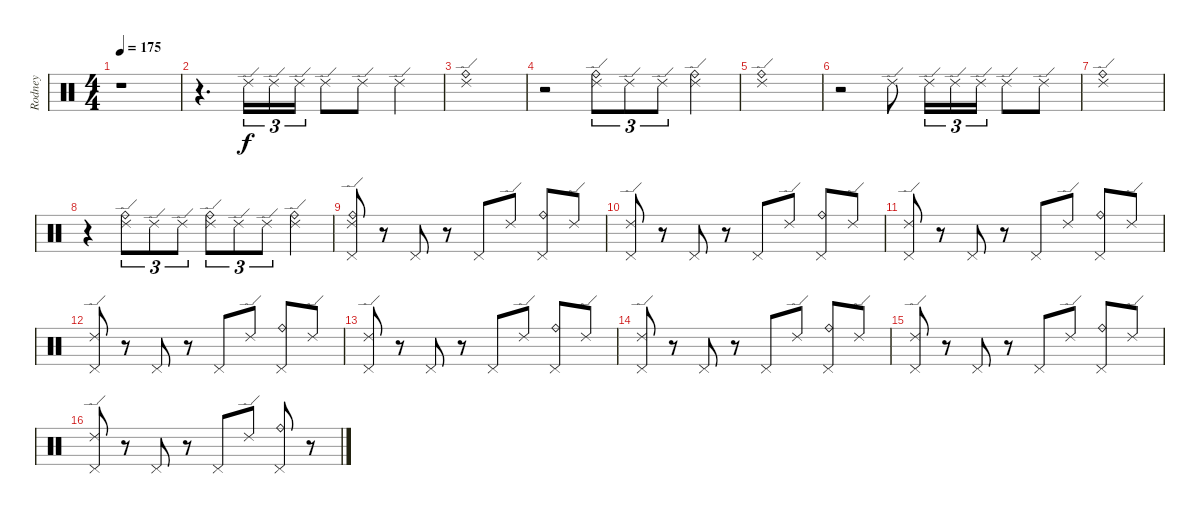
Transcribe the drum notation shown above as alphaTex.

\track ("Rodney" "Rodney") {instrument percussion}
\staff {score}
\articulation defaults
\ts (4 4)
\tempo 175
\tempo 138
\tempo 175
\clef neutral
\ks c
r.1{dy f} |
r.4{d} "Ride (edge) 2".16{tu (3 2)} "Ride (edge) 2".16{tu (3 2)} "Ride (edge) 2".16{tu (3 2)} "Ride (edge) 2".8 "Ride (edge) 2".8 "Ride (edge) 2".4 |
("Ride (edge) 2" "Ride (bell)").1{bd 240} |
r.2 ("Ride (edge) 2" "Ride (bell)").8{tu (3 2)} "Ride (edge) 2".8{tu (3 2)} "Ride (edge) 2".8{tu (3 2)} ("Ride (edge) 2" "Ride (bell)").4 |
("Ride (edge) 2" "Ride (bell)").1{bd 240} |
r.2 "Ride (edge) 2".8 "Ride (edge) 2".16{tu (3 2)} "Ride (edge) 2".16{tu (3 2)} "Ride (edge) 2".16{tu (3 2)} "Ride (edge) 2".8 "Ride (edge) 2".8 |
("Ride (edge) 2" "Ride (bell)").1{bd 240} |
r.4 ("Ride (edge) 2" "Ride (bell)").8{tu (3 2)} "Ride (edge) 2".8{tu (3 2)} "Ride (edge) 2".8{tu (3 2)} ("Ride (edge) 2" "Ride (bell)").8{tu (3 2)} "Ride (edge) 2".8{tu (3 2)} "Ride (edge) 2".8{tu (3 2)} ("Ride (edge) 2" "Ride (bell)").4 |
("Pedal Hi-Hat (hit)" "Ride (edge) 2" "Ride (bell)").8 r.8 "Pedal Hi-Hat (hit)".8 r.8 "Pedal Hi-Hat (hit)".8 "Ride (edge) 2".8 ("Pedal Hi-Hat (hit)" "Ride (bell)").8 "Ride (edge) 2".8 |
("Pedal Hi-Hat (hit)" "Ride (edge) 2").8 r.8 "Pedal Hi-Hat (hit)".8 r.8 "Pedal Hi-Hat (hit)".8 "Ride (edge) 2".8 ("Pedal Hi-Hat (hit)" "Ride (bell)").8 "Ride (edge) 2".8 |
("Pedal Hi-Hat (hit)" "Ride (edge) 2").8 r.8 "Pedal Hi-Hat (hit)".8 r.8 "Pedal Hi-Hat (hit)".8 "Ride (edge) 2".8 ("Pedal Hi-Hat (hit)" "Ride (bell)").8 "Ride (edge) 2".8 |
("Pedal Hi-Hat (hit)" "Ride (edge) 2").8 r.8 "Pedal Hi-Hat (hit)".8 r.8 "Pedal Hi-Hat (hit)".8 "Ride (edge) 2".8 ("Pedal Hi-Hat (hit)" "Ride (bell)").8 "Ride (edge) 2".8 |
("Pedal Hi-Hat (hit)" "Ride (edge) 2").8 r.8 "Pedal Hi-Hat (hit)".8 r.8 "Pedal Hi-Hat (hit)".8 "Ride (edge) 2".8 ("Pedal Hi-Hat (hit)" "Ride (bell)").8 "Ride (edge) 2".8 |
("Pedal Hi-Hat (hit)" "Ride (edge) 2").8 r.8 "Pedal Hi-Hat (hit)".8 r.8 "Pedal Hi-Hat (hit)".8 "Ride (edge) 2".8 ("Pedal Hi-Hat (hit)" "Ride (bell)").8 "Ride (edge) 2".8 |
("Pedal Hi-Hat (hit)" "Ride (edge) 2").8 r.8 "Pedal Hi-Hat (hit)".8 r.8 "Pedal Hi-Hat (hit)".8 "Ride (edge) 2".8 ("Pedal Hi-Hat (hit)" "Ride (bell)").8 "Ride (edge) 2".8 |
("Pedal Hi-Hat (hit)" "Ride (edge) 2").8 r.8 "Pedal Hi-Hat (hit)".8 r.8 "Pedal Hi-Hat (hit)".8 "Ride (edge) 2".8 ("Pedal Hi-Hat (hit)" "Ride (bell)").8 r.8
